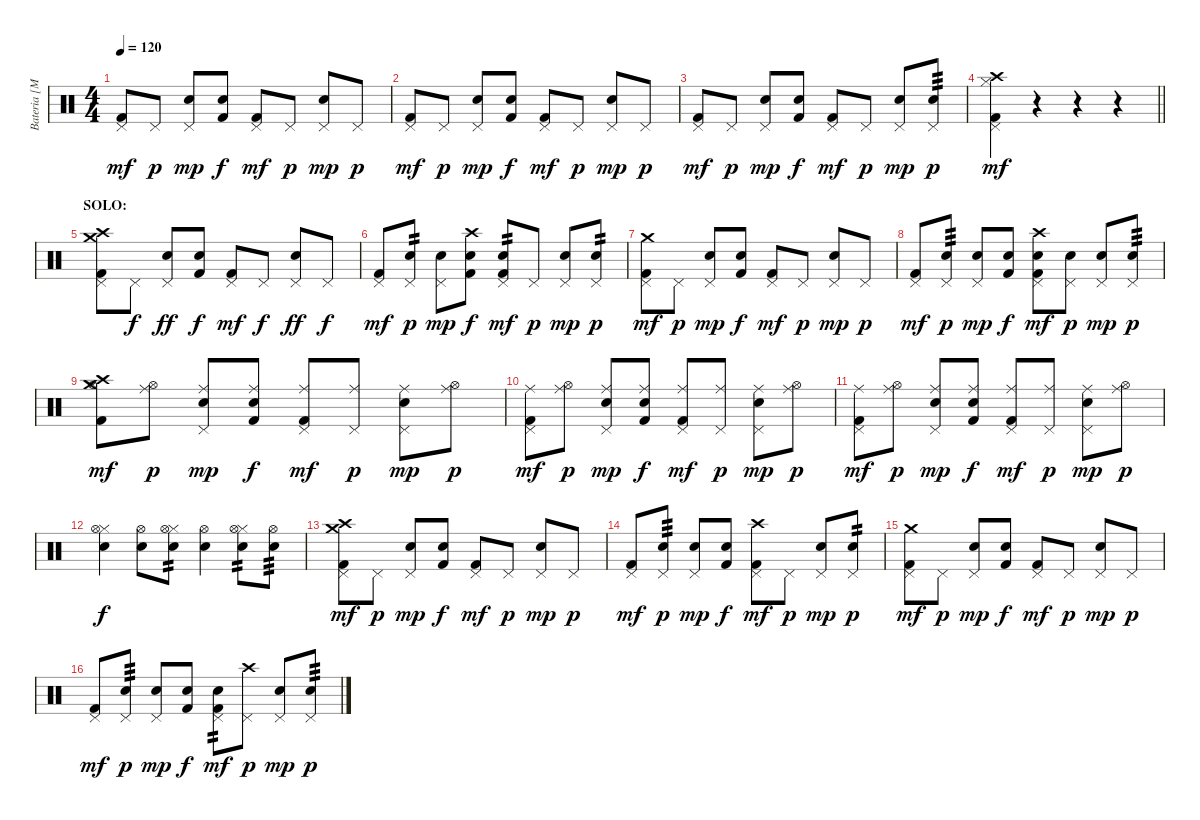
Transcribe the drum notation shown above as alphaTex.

\track ("Bateria [Mauricio Basualto]" "Bateria [M") {instrument percussion}
\staff {score}
\articulation defaults
\ts (4 4)
\tempo 120
\clef neutral
\ks c
("Kick (hit) 2" "Pedal Hi-Hat (hit)").8{dy mf} "Pedal Hi-Hat (hit)".8{dy p} ("Electric Snare (hit)" "Pedal Hi-Hat (hit)").8{dy mp} ("Electric Snare (hit)" "Kick (hit) 2").8{dy f} ("Kick (hit) 2" "Pedal Hi-Hat (hit)").8{dy mf} "Pedal Hi-Hat (hit)".8{dy p} ("Electric Snare (hit)" "Pedal Hi-Hat (hit)").8{dy mp} "Pedal Hi-Hat (hit)".8{dy p} |
("Kick (hit) 2" "Pedal Hi-Hat (hit)").8{dy mf} "Pedal Hi-Hat (hit)".8{dy p} ("Electric Snare (hit)" "Pedal Hi-Hat (hit)").8{dy mp} ("Electric Snare (hit)" "Kick (hit) 2").8{dy f} ("Kick (hit) 2" "Pedal Hi-Hat (hit)").8{dy mf} "Pedal Hi-Hat (hit)".8{dy p} ("Electric Snare (hit)" "Pedal Hi-Hat (hit)").8{dy mp} "Pedal Hi-Hat (hit)".8{dy p} |
("Kick (hit) 2" "Pedal Hi-Hat (hit)").8{dy mf} "Pedal Hi-Hat (hit)".8{dy p} ("Electric Snare (hit)" "Pedal Hi-Hat (hit)").8{dy mp} ("Electric Snare (hit)" "Kick (hit) 2").8{dy f} ("Kick (hit) 2" "Pedal Hi-Hat (hit)").8{dy mf} "Pedal Hi-Hat (hit)".8{dy p} ("Electric Snare (hit)" "Pedal Hi-Hat (hit)").8{dy mp} ("Pedal Hi-Hat (hit)" "Electric Snare (hit)").8{tp 3 dy p} |
\barLineRight lightlight
("Kick (hit) 2" "Hi-Hat (closed)" "Pedal Hi-Hat (hit)" "Crash high (hit)").4{dy mf} r.4 r.4 r.4 |
\section ("" "SOLO:")
("Kick (hit) 2" "Pedal Hi-Hat (hit)" "Crash medium (hit)" "Crash high (hit)").8 "Pedal Hi-Hat (hit)".8{dy f} ("Electric Snare (hit)" "Pedal Hi-Hat (hit)").8{dy ff} ("Electric Snare (hit)" "Kick (hit) 2").8{dy f} ("Kick (hit) 2" "Pedal Hi-Hat (hit)").8{dy mf} "Pedal Hi-Hat (hit)".8{dy f} ("Electric Snare (hit)" "Pedal Hi-Hat (hit)").8{dy ff} "Pedal Hi-Hat (hit)".8{dy f} |
("Kick (hit) 2" "Pedal Hi-Hat (hit)").8{dy mf} ("Pedal Hi-Hat (hit)" "Electric Snare (hit)").8{tp 2 dy p} ("Electric Snare (hit)" "Pedal Hi-Hat (hit)").8{dy mp} ("Electric Snare (hit)" "Kick (hit) 2" "Crash high (hit)").8{dy f} ("Kick (hit) 2" "Pedal Hi-Hat (hit)" "Electric Snare (hit)").8{tp 2 dy mf} "Pedal Hi-Hat (hit)".8{dy p} ("Electric Snare (hit)" "Pedal Hi-Hat (hit)").8{dy mp} ("Pedal Hi-Hat (hit)" "Electric Snare (hit)").8{tp 2 dy p} |
("Kick (hit) 2" "Pedal Hi-Hat (hit)" "Crash medium (hit)").8{dy mf} "Pedal Hi-Hat (hit)".8{dy p} ("Electric Snare (hit)" "Pedal Hi-Hat (hit)").8{dy mp} ("Electric Snare (hit)" "Kick (hit) 2").8{dy f} ("Kick (hit) 2" "Pedal Hi-Hat (hit)").8{dy mf} "Pedal Hi-Hat (hit)".8{dy p} ("Electric Snare (hit)" "Pedal Hi-Hat (hit)").8{dy mp} "Pedal Hi-Hat (hit)".8{dy p} |
("Kick (hit) 2" "Pedal Hi-Hat (hit)").8{dy mf} ("Pedal Hi-Hat (hit)" "Electric Snare (hit)").8{tp 3 dy p} ("Electric Snare (hit)" "Pedal Hi-Hat (hit)").8{dy mp} ("Electric Snare (hit)" "Kick (hit) 2").8{dy f} ("Kick (hit) 2" "Pedal Hi-Hat (hit)" "Electric Snare (hit)" "Crash high (hit)").8{dy mf} ("Pedal Hi-Hat (hit)" "Electric Snare (hit)").8{dy p} ("Electric Snare (hit)" "Pedal Hi-Hat (hit)").8{dy mp} ("Pedal Hi-Hat (hit)" "Electric Snare (hit)").8{tp 3 dy p} |
("Kick (hit) 2" "Hi-Hat (open)" "Crash medium (hit)" "Crash high (hit)").8{dy mf} ("Hi-Hat (open)" "Ride (middle)").8{dy p} ("Electric Snare (hit)" "Pedal Hi-Hat (hit)" "Ride (middle)").8{dy mp} ("Electric Snare (hit)" "Kick (hit) 2" "Ride (middle)").8{dy f} ("Kick (hit) 2" "Pedal Hi-Hat (hit)" "Ride (middle)").8{dy mf} ("Pedal Hi-Hat (hit)" "Ride (middle)").8{dy p} ("Electric Snare (hit)" "Pedal Hi-Hat (hit)" "Ride (middle)").8{dy mp} ("Hi-Hat (open)" "Ride (middle)").8{dy p} |
("Kick (hit) 2" "Pedal Hi-Hat (hit)" "Ride (middle)").8{dy mf} ("Hi-Hat (open)" "Ride (middle)").8{dy p} ("Electric Snare (hit)" "Pedal Hi-Hat (hit)" "Ride (middle)").8{dy mp} ("Electric Snare (hit)" "Kick (hit) 2" "Ride (middle)").8{dy f} ("Kick (hit) 2" "Pedal Hi-Hat (hit)" "Ride (middle)").8{dy mf} ("Pedal Hi-Hat (hit)" "Ride (middle)").8{dy p} ("Electric Snare (hit)" "Pedal Hi-Hat (hit)" "Ride (middle)").8{dy mp} ("Hi-Hat (open)" "Ride (middle)").8{dy p} |
("Kick (hit) 2" "Pedal Hi-Hat (hit)" "Ride (middle)").8{dy mf} ("Hi-Hat (open)" "Ride (middle)").8{dy p} ("Electric Snare (hit)" "Pedal Hi-Hat (hit)" "Ride (middle)").8{dy mp} ("Electric Snare (hit)" "Kick (hit) 2" "Ride (middle)").8{dy f} ("Kick (hit) 2" "Pedal Hi-Hat (hit)" "Ride (middle)").8{dy mf} ("Pedal Hi-Hat (hit)" "Ride (middle)").8{dy p} ("Electric Snare (hit)" "Pedal Hi-Hat (hit)" "Ride (middle)").8{dy mp} ("Hi-Hat (open)" "Ride (middle)").8{dy p} |
("Hi-Hat (closed)" "Electric Snare (hit)" "Hi-Hat (open)").4{dy f} ("Electric Snare (hit)" "Hi-Hat (open)").8 ("Hi-Hat (closed)" "Electric Snare (hit)" "Hi-Hat (open)").8{tp 2} ("Electric Snare (hit)" "Hi-Hat (open)").4 ("Hi-Hat (closed)" "Electric Snare (hit)" "Hi-Hat (open)").8{tp 2} ("Electric Snare (hit)" "Hi-Hat (open)").8{tp 3} |
("Kick (hit) 2" "Pedal Hi-Hat (hit)" "Crash medium (hit)" "Crash high (hit)").8{dy mf} "Pedal Hi-Hat (hit)".8{dy p} ("Electric Snare (hit)" "Pedal Hi-Hat (hit)").8{dy mp} ("Electric Snare (hit)" "Kick (hit) 2").8{dy f} ("Kick (hit) 2" "Pedal Hi-Hat (hit)").8{dy mf} "Pedal Hi-Hat (hit)".8{dy p} ("Electric Snare (hit)" "Pedal Hi-Hat (hit)").8{dy mp} "Pedal Hi-Hat (hit)".8{dy p} |
("Kick (hit) 2" "Pedal Hi-Hat (hit)").8{dy mf} ("Pedal Hi-Hat (hit)" "Electric Snare (hit)").8{tp 3 dy p} ("Electric Snare (hit)" "Pedal Hi-Hat (hit)").8{dy mp} ("Electric Snare (hit)" "Kick (hit) 2").8{dy f} ("Kick (hit) 2" "Pedal Hi-Hat (hit)" "Crash high (hit)").8{dy mf} "Pedal Hi-Hat (hit)".8{dy p} ("Electric Snare (hit)" "Pedal Hi-Hat (hit)").8{dy mp} ("Pedal Hi-Hat (hit)" "Electric Snare (hit)").8{tp 2 dy p} |
("Kick (hit) 2" "Pedal Hi-Hat (hit)" "Crash medium (hit)").8{dy mf} "Pedal Hi-Hat (hit)".8{dy p} ("Electric Snare (hit)" "Pedal Hi-Hat (hit)").8{dy mp} ("Electric Snare (hit)" "Kick (hit) 2").8{dy f} ("Kick (hit) 2" "Pedal Hi-Hat (hit)").8{dy mf} "Pedal Hi-Hat (hit)".8{dy p} ("Electric Snare (hit)" "Pedal Hi-Hat (hit)").8{dy mp} "Pedal Hi-Hat (hit)".8{dy p} |
("Kick (hit) 2" "Pedal Hi-Hat (hit)").8{dy mf} ("Pedal Hi-Hat (hit)" "Electric Snare (hit)").8{tp 3 dy p} ("Electric Snare (hit)" "Pedal Hi-Hat (hit)").8{dy mp} ("Electric Snare (hit)" "Kick (hit) 2").8{dy f} ("Kick (hit) 2" "Pedal Hi-Hat (hit)" "Electric Snare (hit)").8{tp 2 dy mf} ("Pedal Hi-Hat (hit)" "Crash high (hit)").8{dy p} ("Electric Snare (hit)" "Pedal Hi-Hat (hit)").8{dy mp} ("Pedal Hi-Hat (hit)" "Electric Snare (hit)").8{tp 3 dy p}
